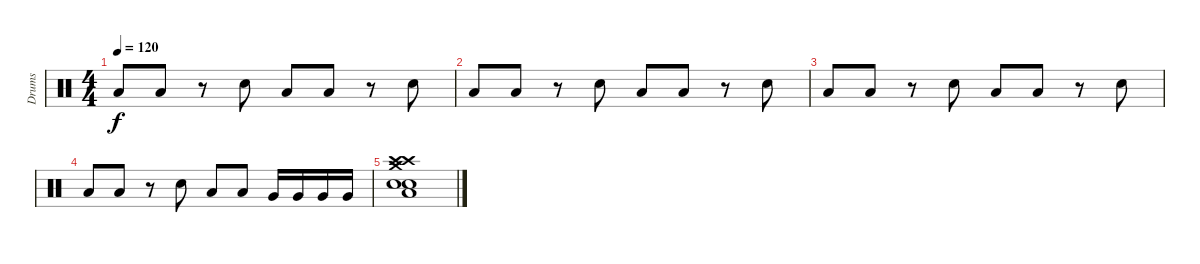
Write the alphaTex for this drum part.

\track ("Drums" "Drums") {instrument percussion}
\staff {score}
\articulation defaults
\ts (4 4)
\tempo 120
\clef neutral
\ks c "Low Tom (hit)".8{dy f} "Low Tom (hit)".8
r.8 "Electric Snare (hit)".8 "Low Tom (hit)".8 "Low Tom (hit)".8 r.8 "Electric Snare (hit)".8 |
"Low Tom (hit)".8 "Low Tom (hit)".8 r.8 "Electric Snare (hit)".8 "Low Tom (hit)".8 "Low Tom (hit)".8 r.8 "Electric Snare (hit)".8 |
"Low Tom (hit)".8 "Low Tom (hit)".8 r.8 "Electric Snare (hit)".8 "Low Tom (hit)".8 "Low Tom (hit)".8 r.8 "Electric Snare (hit)".8 |
"Low Tom (hit)".8 "Low Tom (hit)".8 r.8 "Electric Snare (hit)".8 "Low Tom (hit)".8 "Low Tom (hit)".8 "Very Low Tom (hit)".16 "Very Low Tom (hit)".16 "Very Low Tom (hit)".16 "Very Low Tom (hit)".16 |
("Crash high (hit)" "Crash high (hit)" "Crash medium (hit)" "Low Floor Tom (hit)" "Electric Snare (hit)" "Electric Snare (hit)").1
